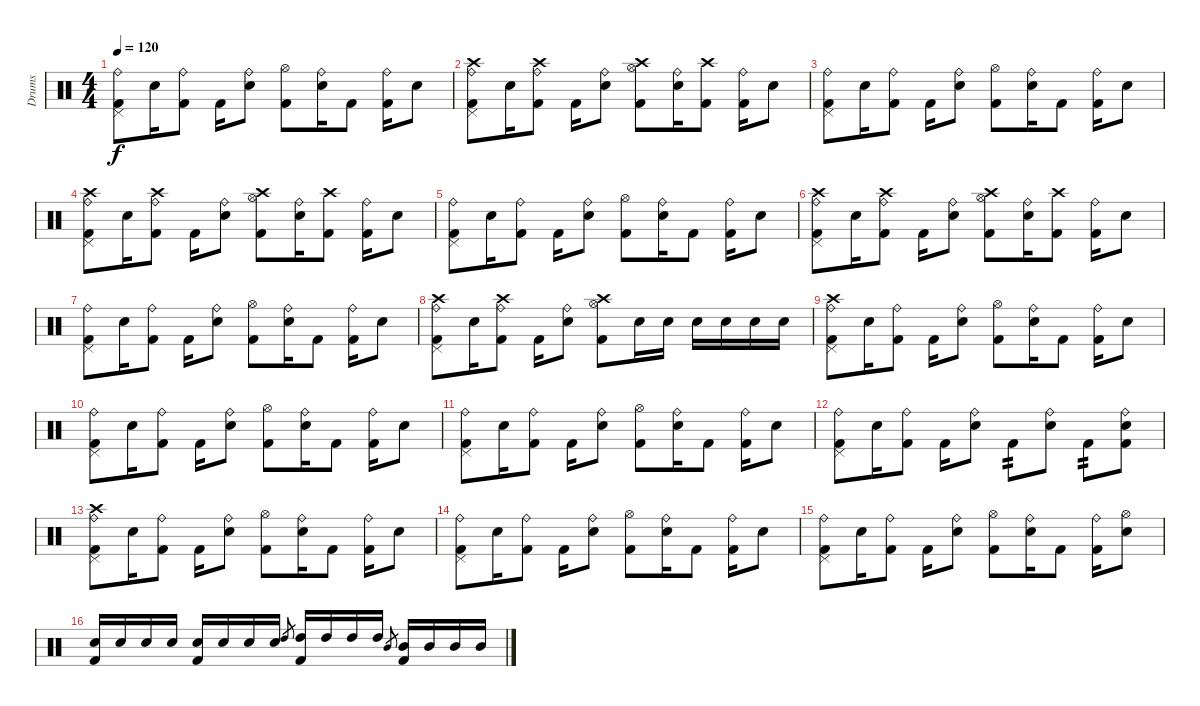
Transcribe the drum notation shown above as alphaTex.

\track ("Drums" "Drums") {instrument percussion}
\staff {score}
\articulation defaults
\ts (4 4)
\tempo 120
\clef neutral
\ks c
("Ride (bell)" "Pedal Hi-Hat (hit)" "Kick (hit) 2").8{dy f} "Electric Snare (hit)".16 ("Ride (bell)" "Kick (hit) 2").8 "Kick (hit) 2".16 ("Ride (bell)" "Electric Snare (hit)").8 ("Hi-Hat (open)" "Kick (hit) 2").8 ("Ride (bell)" "Electric Snare (hit)").16 "Kick (hit) 2".8 ("Ride (bell)" "Kick (hit) 2").16 "Electric Snare (hit)".8 |
("Ride (bell)" "Pedal Hi-Hat (hit)" "Crash high (hit)" "Kick (hit) 2").8 "Electric Snare (hit)".16 ("Ride (bell)" "Crash high (hit)" "Kick (hit) 2").8 "Kick (hit) 2".16 ("Ride (bell)" "Electric Snare (hit)").8 ("Hi-Hat (open)" "Crash high (hit)" "Kick (hit) 2").8 ("Ride (bell)" "Electric Snare (hit)").16 ("Crash high (hit)" "Kick (hit) 2").8 ("Ride (bell)" "Kick (hit) 2").16 "Electric Snare (hit)".8 |
("Ride (bell)" "Pedal Hi-Hat (hit)" "Kick (hit) 2").8 "Electric Snare (hit)".16 ("Ride (bell)" "Kick (hit) 2").8 "Kick (hit) 2".16 ("Ride (bell)" "Electric Snare (hit)").8 ("Hi-Hat (open)" "Kick (hit) 2").8 ("Ride (bell)" "Electric Snare (hit)").16 "Kick (hit) 2".8 ("Ride (bell)" "Kick (hit) 2").16 "Electric Snare (hit)".8 |
("Ride (bell)" "Pedal Hi-Hat (hit)" "Crash high (hit)" "Kick (hit) 2").8 "Electric Snare (hit)".16 ("Ride (bell)" "Crash high (hit)" "Kick (hit) 2").8 "Kick (hit) 2".16 ("Ride (bell)" "Electric Snare (hit)").8 ("Hi-Hat (open)" "Crash high (hit)" "Kick (hit) 2").8 ("Ride (bell)" "Electric Snare (hit)").16 ("Crash high (hit)" "Kick (hit) 2").8 ("Ride (bell)" "Kick (hit) 2").16 "Electric Snare (hit)".8 |
("Ride (bell)" "Pedal Hi-Hat (hit)" "Kick (hit) 2").8 "Electric Snare (hit)".16 ("Ride (bell)" "Kick (hit) 2").8 "Kick (hit) 2".16 ("Ride (bell)" "Electric Snare (hit)").8 ("Hi-Hat (open)" "Kick (hit) 2").8 ("Ride (bell)" "Electric Snare (hit)").16 "Kick (hit) 2".8 ("Ride (bell)" "Kick (hit) 2").16 "Electric Snare (hit)".8 |
("Ride (bell)" "Pedal Hi-Hat (hit)" "Crash high (hit)" "Kick (hit) 2").8 "Electric Snare (hit)".16 ("Ride (bell)" "Crash high (hit)" "Kick (hit) 2").8 "Kick (hit) 2".16 ("Ride (bell)" "Electric Snare (hit)").8 ("Hi-Hat (open)" "Crash high (hit)" "Kick (hit) 2").8 ("Ride (bell)" "Electric Snare (hit)").16 ("Crash high (hit)" "Kick (hit) 2").8 ("Ride (bell)" "Kick (hit) 2").16 "Electric Snare (hit)".8 |
("Ride (bell)" "Pedal Hi-Hat (hit)" "Kick (hit) 2").8 "Electric Snare (hit)".16 ("Ride (bell)" "Kick (hit) 2").8 "Kick (hit) 2".16 ("Ride (bell)" "Electric Snare (hit)").8 ("Hi-Hat (open)" "Kick (hit) 2").8 ("Ride (bell)" "Electric Snare (hit)").16 "Kick (hit) 2".8 ("Ride (bell)" "Kick (hit) 2").16 "Electric Snare (hit)".8 |
("Ride (bell)" "Pedal Hi-Hat (hit)" "Crash high (hit)" "Kick (hit) 2").8 "Electric Snare (hit)".16 ("Ride (bell)" "Crash high (hit)" "Kick (hit) 2").8 "Kick (hit) 2".16 ("Ride (bell)" "Electric Snare (hit)").8 ("Hi-Hat (open)" "Crash high (hit)" "Kick (hit) 2").8 "Electric Snare (hit)".16 "Electric Snare (hit)".16 "Electric Snare (hit)".16 "Electric Snare (hit)".16 "Electric Snare (hit)".16 "Electric Snare (hit)".16 |
("Ride (bell)" "Pedal Hi-Hat (hit)" "Crash high (hit)" "Kick (hit) 2").8 "Electric Snare (hit)".16 ("Ride (bell)" "Kick (hit) 2").8 "Kick (hit) 2".16 ("Ride (bell)" "Electric Snare (hit)").8 ("Hi-Hat (open)" "Kick (hit) 2").8 ("Ride (bell)" "Electric Snare (hit)").16 "Kick (hit) 2".8 ("Ride (bell)" "Kick (hit) 2").16 "Electric Snare (hit)".8 |
("Ride (bell)" "Pedal Hi-Hat (hit)" "Kick (hit) 2").8 "Electric Snare (hit)".16 ("Ride (bell)" "Kick (hit) 2").8 "Kick (hit) 2".16 ("Ride (bell)" "Electric Snare (hit)").8 ("Hi-Hat (open)" "Kick (hit) 2").8 ("Ride (bell)" "Electric Snare (hit)").16 "Kick (hit) 2".8 ("Ride (bell)" "Kick (hit) 2").16 "Electric Snare (hit)".8 |
("Ride (bell)" "Pedal Hi-Hat (hit)" "Kick (hit) 2").8 "Electric Snare (hit)".16 ("Ride (bell)" "Kick (hit) 2").8 "Kick (hit) 2".16 ("Ride (bell)" "Electric Snare (hit)").8 ("Hi-Hat (open)" "Kick (hit) 2").8 ("Ride (bell)" "Electric Snare (hit)").16 "Kick (hit) 2".8 ("Ride (bell)" "Kick (hit) 2").16 "Electric Snare (hit)".8 |
("Ride (bell)" "Pedal Hi-Hat (hit)" "Kick (hit) 2").8 "Electric Snare (hit)".16 ("Ride (bell)" "Kick (hit) 2").8 "Kick (hit) 2".16 ("Ride (bell)" "Electric Snare (hit)").8 "Kick (hit) 2".8{tp 2} ("Ride (bell)" "Electric Snare (hit)").8 "Kick (hit) 2".8{tp 2} ("Ride (bell)" "Electric Snare (hit)" "Kick (hit) 2").8 |
("Ride (bell)" "Pedal Hi-Hat (hit)" "Crash high (hit)" "Kick (hit) 2").8 "Electric Snare (hit)".16 ("Ride (bell)" "Kick (hit) 2").8 "Kick (hit) 2".16 ("Ride (bell)" "Electric Snare (hit)").8 ("Hi-Hat (open)" "Kick (hit) 2").8 ("Ride (bell)" "Electric Snare (hit)").16 "Kick (hit) 2".8 ("Ride (bell)" "Kick (hit) 2").16 "Electric Snare (hit)".8 |
("Ride (bell)" "Pedal Hi-Hat (hit)" "Kick (hit) 2").8 "Electric Snare (hit)".16 ("Ride (bell)" "Kick (hit) 2").8 "Kick (hit) 2".16 ("Ride (bell)" "Electric Snare (hit)").8 ("Hi-Hat (open)" "Kick (hit) 2").8 ("Ride (bell)" "Electric Snare (hit)").16 "Kick (hit) 2".8 ("Ride (bell)" "Kick (hit) 2").16 "Electric Snare (hit)".8 |
("Ride (bell)" "Pedal Hi-Hat (hit)" "Kick (hit) 2").8 "Electric Snare (hit)".16 ("Ride (bell)" "Kick (hit) 2").8 "Kick (hit) 2".16 ("Ride (bell)" "Electric Snare (hit)").8 ("Hi-Hat (open)" "Kick (hit) 2").8 ("Ride (bell)" "Electric Snare (hit)").16 "Kick (hit) 2".8 ("Ride (bell)" "Kick (hit) 2").16 ("Hi-Hat (open)" "Electric Snare (hit)").8 |
("Electric Snare (hit)" "Kick (hit) 2").16 "Electric Snare (hit)".16 "Electric Snare (hit)".16 "Electric Snare (hit)".16 ("Electric Snare (hit)" "Kick (hit) 2").16 "Electric Snare (hit)".16 "Electric Snare (hit)".16 "Electric Snare (hit)".16 "High Tom (hit)".8{gr} ("High Tom (hit)" "Kick (hit) 2").16 "High Tom (hit)".16 "High Tom (hit)".16 "High Tom (hit)".16 "Mid Tom (hit)".8{gr} ("Mid Tom (hit)" "Kick (hit) 2").16 "Mid Tom (hit)".16 "Mid Tom (hit)".16 "Mid Tom (hit)".16
